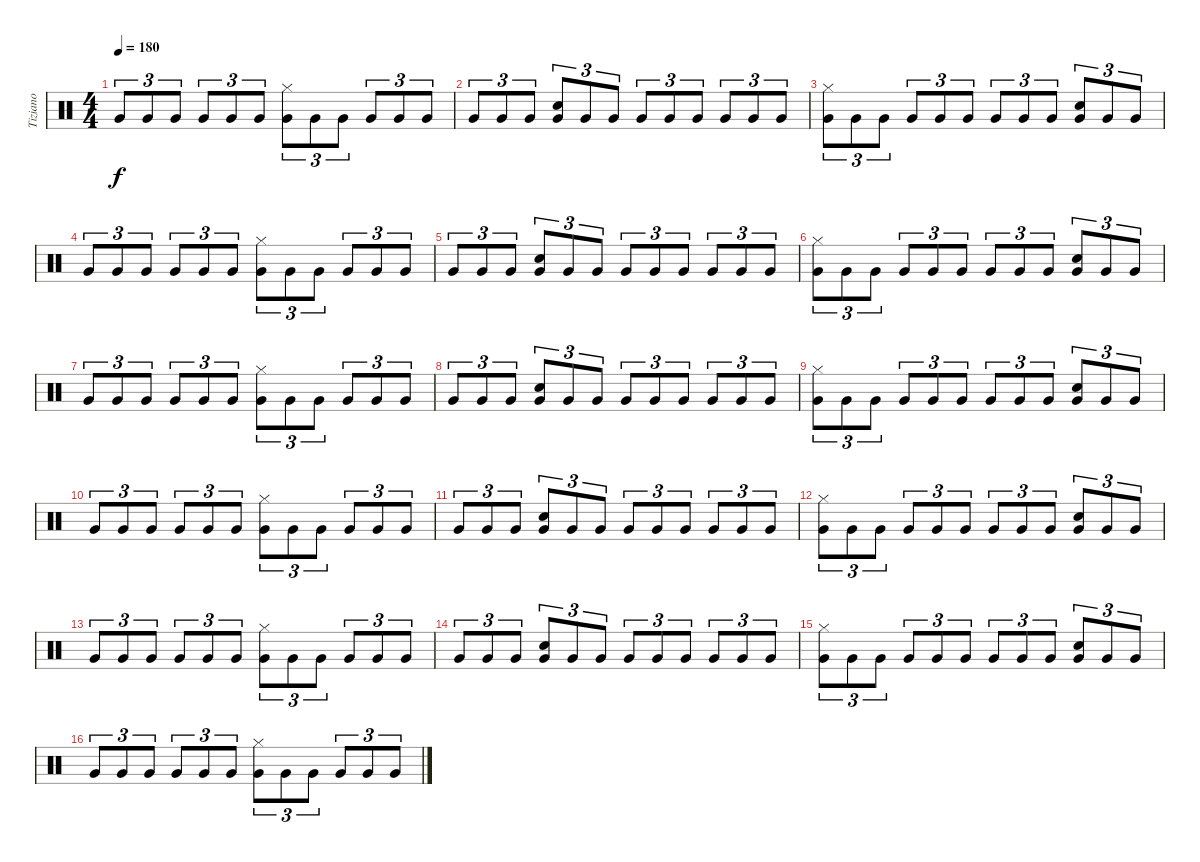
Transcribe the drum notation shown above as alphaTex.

\track ("Tiziano" "Tiziano") {instrument percussion}
\staff {score}
\articulation defaults
\ts (4 4)
\tempo 180
\clef neutral
\ks c "Very Low Tom (hit)".8{tu (3 2) dy f} "Very Low Tom (hit)".8{tu (3 2)} "Very Low Tom (hit)".8{tu (3 2)} "Very Low Tom (hit)".8{tu (3 2)} "Very Low Tom (hit)".8{tu (3 2)} "Very Low Tom (hit)".8{tu (3 2)}
("Very Low Tom (hit)" "Hi-Hat (closed)").8{tu (3 2)} "Very Low Tom (hit)".8{tu (3 2)} "Very Low Tom (hit)".8{tu (3 2)} "Very Low Tom (hit)".8{tu (3 2)} "Very Low Tom (hit)".8{tu (3 2)} "Very Low Tom (hit)".8{tu (3 2)} |
"Very Low Tom (hit)".8{tu (3 2)} "Very Low Tom (hit)".8{tu (3 2)} "Very Low Tom (hit)".8{tu (3 2)} ("Very Low Tom (hit)" "Snare (hit) 2").8{tu (3 2)} "Very Low Tom (hit)".8{tu (3 2)} "Very Low Tom (hit)".8{tu (3 2)} "Very Low Tom (hit)".8{tu (3 2)} "Very Low Tom (hit)".8{tu (3 2)} "Very Low Tom (hit)".8{tu (3 2)} "Very Low Tom (hit)".8{tu (3 2)} "Very Low Tom (hit)".8{tu (3 2)} "Very Low Tom (hit)".8{tu (3 2)} |
("Very Low Tom (hit)" "Hi-Hat (closed)").8{tu (3 2)} "Very Low Tom (hit)".8{tu (3 2)} "Very Low Tom (hit)".8{tu (3 2)} "Very Low Tom (hit)".8{tu (3 2)} "Very Low Tom (hit)".8{tu (3 2)} "Very Low Tom (hit)".8{tu (3 2)} "Very Low Tom (hit)".8{tu (3 2)} "Very Low Tom (hit)".8{tu (3 2)} "Very Low Tom (hit)".8{tu (3 2)} ("Very Low Tom (hit)" "Snare (hit) 2").8{tu (3 2)} "Very Low Tom (hit)".8{tu (3 2)} "Very Low Tom (hit)".8{tu (3 2)} |
"Very Low Tom (hit)".8{tu (3 2)} "Very Low Tom (hit)".8{tu (3 2)} "Very Low Tom (hit)".8{tu (3 2)} "Very Low Tom (hit)".8{tu (3 2)} "Very Low Tom (hit)".8{tu (3 2)} "Very Low Tom (hit)".8{tu (3 2)} ("Very Low Tom (hit)" "Hi-Hat (closed)").8{tu (3 2)} "Very Low Tom (hit)".8{tu (3 2)} "Very Low Tom (hit)".8{tu (3 2)} "Very Low Tom (hit)".8{tu (3 2)} "Very Low Tom (hit)".8{tu (3 2)} "Very Low Tom (hit)".8{tu (3 2)} |
"Very Low Tom (hit)".8{tu (3 2)} "Very Low Tom (hit)".8{tu (3 2)} "Very Low Tom (hit)".8{tu (3 2)} ("Very Low Tom (hit)" "Snare (hit) 2").8{tu (3 2)} "Very Low Tom (hit)".8{tu (3 2)} "Very Low Tom (hit)".8{tu (3 2)} "Very Low Tom (hit)".8{tu (3 2)} "Very Low Tom (hit)".8{tu (3 2)} "Very Low Tom (hit)".8{tu (3 2)} "Very Low Tom (hit)".8{tu (3 2)} "Very Low Tom (hit)".8{tu (3 2)} "Very Low Tom (hit)".8{tu (3 2)} |
("Very Low Tom (hit)" "Hi-Hat (closed)").8{tu (3 2)} "Very Low Tom (hit)".8{tu (3 2)} "Very Low Tom (hit)".8{tu (3 2)} "Very Low Tom (hit)".8{tu (3 2)} "Very Low Tom (hit)".8{tu (3 2)} "Very Low Tom (hit)".8{tu (3 2)} "Very Low Tom (hit)".8{tu (3 2)} "Very Low Tom (hit)".8{tu (3 2)} "Very Low Tom (hit)".8{tu (3 2)} ("Very Low Tom (hit)" "Snare (hit) 2").8{tu (3 2)} "Very Low Tom (hit)".8{tu (3 2)} "Very Low Tom (hit)".8{tu (3 2)} |
"Very Low Tom (hit)".8{tu (3 2)} "Very Low Tom (hit)".8{tu (3 2)} "Very Low Tom (hit)".8{tu (3 2)} "Very Low Tom (hit)".8{tu (3 2)} "Very Low Tom (hit)".8{tu (3 2)} "Very Low Tom (hit)".8{tu (3 2)} ("Very Low Tom (hit)" "Hi-Hat (closed)").8{tu (3 2)} "Very Low Tom (hit)".8{tu (3 2)} "Very Low Tom (hit)".8{tu (3 2)} "Very Low Tom (hit)".8{tu (3 2)} "Very Low Tom (hit)".8{tu (3 2)} "Very Low Tom (hit)".8{tu (3 2)} |
"Very Low Tom (hit)".8{tu (3 2)} "Very Low Tom (hit)".8{tu (3 2)} "Very Low Tom (hit)".8{tu (3 2)} ("Very Low Tom (hit)" "Snare (hit) 2").8{tu (3 2)} "Very Low Tom (hit)".8{tu (3 2)} "Very Low Tom (hit)".8{tu (3 2)} "Very Low Tom (hit)".8{tu (3 2)} "Very Low Tom (hit)".8{tu (3 2)} "Very Low Tom (hit)".8{tu (3 2)} "Very Low Tom (hit)".8{tu (3 2)} "Very Low Tom (hit)".8{tu (3 2)} "Very Low Tom (hit)".8{tu (3 2)} |
("Very Low Tom (hit)" "Hi-Hat (closed)").8{tu (3 2)} "Very Low Tom (hit)".8{tu (3 2)} "Very Low Tom (hit)".8{tu (3 2)} "Very Low Tom (hit)".8{tu (3 2)} "Very Low Tom (hit)".8{tu (3 2)} "Very Low Tom (hit)".8{tu (3 2)} "Very Low Tom (hit)".8{tu (3 2)} "Very Low Tom (hit)".8{tu (3 2)} "Very Low Tom (hit)".8{tu (3 2)} ("Very Low Tom (hit)" "Snare (hit) 2").8{tu (3 2)} "Very Low Tom (hit)".8{tu (3 2)} "Very Low Tom (hit)".8{tu (3 2)} |
"Very Low Tom (hit)".8{tu (3 2)} "Very Low Tom (hit)".8{tu (3 2)} "Very Low Tom (hit)".8{tu (3 2)} "Very Low Tom (hit)".8{tu (3 2)} "Very Low Tom (hit)".8{tu (3 2)} "Very Low Tom (hit)".8{tu (3 2)} ("Very Low Tom (hit)" "Hi-Hat (closed)").8{tu (3 2)} "Very Low Tom (hit)".8{tu (3 2)} "Very Low Tom (hit)".8{tu (3 2)} "Very Low Tom (hit)".8{tu (3 2)} "Very Low Tom (hit)".8{tu (3 2)} "Very Low Tom (hit)".8{tu (3 2)} |
"Very Low Tom (hit)".8{tu (3 2)} "Very Low Tom (hit)".8{tu (3 2)} "Very Low Tom (hit)".8{tu (3 2)} ("Very Low Tom (hit)" "Snare (hit) 2").8{tu (3 2)} "Very Low Tom (hit)".8{tu (3 2)} "Very Low Tom (hit)".8{tu (3 2)} "Very Low Tom (hit)".8{tu (3 2)} "Very Low Tom (hit)".8{tu (3 2)} "Very Low Tom (hit)".8{tu (3 2)} "Very Low Tom (hit)".8{tu (3 2)} "Very Low Tom (hit)".8{tu (3 2)} "Very Low Tom (hit)".8{tu (3 2)} |
("Very Low Tom (hit)" "Hi-Hat (closed)").8{tu (3 2)} "Very Low Tom (hit)".8{tu (3 2)} "Very Low Tom (hit)".8{tu (3 2)} "Very Low Tom (hit)".8{tu (3 2)} "Very Low Tom (hit)".8{tu (3 2)} "Very Low Tom (hit)".8{tu (3 2)} "Very Low Tom (hit)".8{tu (3 2)} "Very Low Tom (hit)".8{tu (3 2)} "Very Low Tom (hit)".8{tu (3 2)} ("Very Low Tom (hit)" "Snare (hit) 2").8{tu (3 2)} "Very Low Tom (hit)".8{tu (3 2)} "Very Low Tom (hit)".8{tu (3 2)} |
"Very Low Tom (hit)".8{tu (3 2)} "Very Low Tom (hit)".8{tu (3 2)} "Very Low Tom (hit)".8{tu (3 2)} "Very Low Tom (hit)".8{tu (3 2)} "Very Low Tom (hit)".8{tu (3 2)} "Very Low Tom (hit)".8{tu (3 2)} ("Very Low Tom (hit)" "Hi-Hat (closed)").8{tu (3 2)} "Very Low Tom (hit)".8{tu (3 2)} "Very Low Tom (hit)".8{tu (3 2)} "Very Low Tom (hit)".8{tu (3 2)} "Very Low Tom (hit)".8{tu (3 2)} "Very Low Tom (hit)".8{tu (3 2)} |
"Very Low Tom (hit)".8{tu (3 2)} "Very Low Tom (hit)".8{tu (3 2)} "Very Low Tom (hit)".8{tu (3 2)} ("Very Low Tom (hit)" "Snare (hit) 2").8{tu (3 2)} "Very Low Tom (hit)".8{tu (3 2)} "Very Low Tom (hit)".8{tu (3 2)} "Very Low Tom (hit)".8{tu (3 2)} "Very Low Tom (hit)".8{tu (3 2)} "Very Low Tom (hit)".8{tu (3 2)} "Very Low Tom (hit)".8{tu (3 2)} "Very Low Tom (hit)".8{tu (3 2)} "Very Low Tom (hit)".8{tu (3 2)} |
("Very Low Tom (hit)" "Hi-Hat (closed)").8{tu (3 2)} "Very Low Tom (hit)".8{tu (3 2)} "Very Low Tom (hit)".8{tu (3 2)} "Very Low Tom (hit)".8{tu (3 2)} "Very Low Tom (hit)".8{tu (3 2)} "Very Low Tom (hit)".8{tu (3 2)} "Very Low Tom (hit)".8{tu (3 2)} "Very Low Tom (hit)".8{tu (3 2)} "Very Low Tom (hit)".8{tu (3 2)} ("Very Low Tom (hit)" "Snare (hit) 2").8{tu (3 2)} "Very Low Tom (hit)".8{tu (3 2)} "Very Low Tom (hit)".8{tu (3 2)} |
"Very Low Tom (hit)".8{tu (3 2)} "Very Low Tom (hit)".8{tu (3 2)} "Very Low Tom (hit)".8{tu (3 2)} "Very Low Tom (hit)".8{tu (3 2)} "Very Low Tom (hit)".8{tu (3 2)} "Very Low Tom (hit)".8{tu (3 2)} ("Very Low Tom (hit)" "Hi-Hat (closed)").8{tu (3 2)} "Very Low Tom (hit)".8{tu (3 2)} "Very Low Tom (hit)".8{tu (3 2)} "Very Low Tom (hit)".8{tu (3 2)} "Very Low Tom (hit)".8{tu (3 2)} "Very Low Tom (hit)".8{tu (3 2)}
